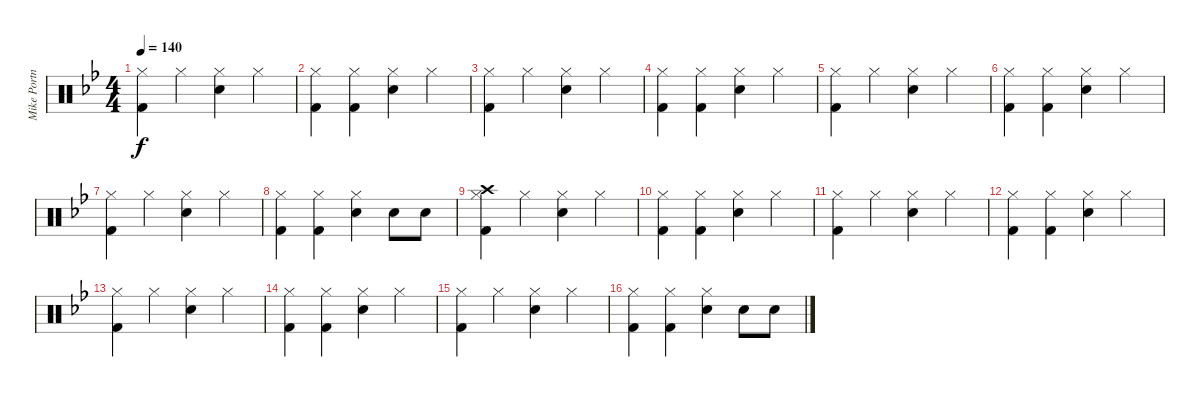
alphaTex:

\track ("Mike Portnoy - Drums" "Mike Portn") {instrument percussion}
\staff {score}
\articulation defaults
\ts (4 4)
\section ("" "")
\tempo 140
\clef neutral
\ks bb
("Hi-Hat (closed)" "Kick (hit) 2").4{dy f} "Hi-Hat (closed)".4 ("Hi-Hat (closed)" "Snare (hit) 2").4 "Hi-Hat (closed)".4 |
("Hi-Hat (closed)" "Kick (hit) 2").4 ("Hi-Hat (closed)" "Kick (hit) 2").4 ("Hi-Hat (closed)" "Snare (hit) 2").4 "Hi-Hat (closed)".4 |
("Hi-Hat (closed)" "Kick (hit) 2").4 "Hi-Hat (closed)".4 ("Hi-Hat (closed)" "Snare (hit) 2").4 "Hi-Hat (closed)".4 |
("Hi-Hat (closed)" "Kick (hit) 2").4 ("Hi-Hat (closed)" "Kick (hit) 2").4 ("Hi-Hat (closed)" "Snare (hit) 2").4 "Hi-Hat (closed)".4 |
("Hi-Hat (closed)" "Kick (hit) 2").4 "Hi-Hat (closed)".4 ("Hi-Hat (closed)" "Snare (hit) 2").4 "Hi-Hat (closed)".4 |
("Hi-Hat (closed)" "Kick (hit) 2").4 ("Hi-Hat (closed)" "Kick (hit) 2").4 ("Hi-Hat (closed)" "Snare (hit) 2").4 "Hi-Hat (closed)".4 |
("Hi-Hat (closed)" "Kick (hit) 2").4 "Hi-Hat (closed)".4 ("Hi-Hat (closed)" "Snare (hit) 2").4 "Hi-Hat (closed)".4 |
("Hi-Hat (closed)" "Kick (hit) 2").4 ("Hi-Hat (closed)" "Kick (hit) 2").4 ("Hi-Hat (closed)" "Snare (hit) 2").4 "Snare (hit) 2".8 "Snare (hit) 2".8 |
\section ("" "")
("Crash high (hit)" "Hi-Hat (closed)" "Kick (hit) 2").4 "Hi-Hat (closed)".4 ("Hi-Hat (closed)" "Snare (hit) 2").4 "Hi-Hat (closed)".4 |
("Hi-Hat (closed)" "Kick (hit) 2").4 ("Hi-Hat (closed)" "Kick (hit) 2").4 ("Hi-Hat (closed)" "Snare (hit) 2").4 "Hi-Hat (closed)".4 |
("Hi-Hat (closed)" "Kick (hit) 2").4 "Hi-Hat (closed)".4 ("Hi-Hat (closed)" "Snare (hit) 2").4 "Hi-Hat (closed)".4 |
("Hi-Hat (closed)" "Kick (hit) 2").4 ("Hi-Hat (closed)" "Kick (hit) 2").4 ("Hi-Hat (closed)" "Snare (hit) 2").4 "Hi-Hat (closed)".4 |
("Hi-Hat (closed)" "Kick (hit) 2").4 "Hi-Hat (closed)".4 ("Hi-Hat (closed)" "Snare (hit) 2").4 "Hi-Hat (closed)".4 |
("Hi-Hat (closed)" "Kick (hit) 2").4 ("Hi-Hat (closed)" "Kick (hit) 2").4 ("Hi-Hat (closed)" "Snare (hit) 2").4 "Hi-Hat (closed)".4 |
("Hi-Hat (closed)" "Kick (hit) 2").4 "Hi-Hat (closed)".4 ("Hi-Hat (closed)" "Snare (hit) 2").4 "Hi-Hat (closed)".4 |
("Hi-Hat (closed)" "Kick (hit) 2").4 ("Hi-Hat (closed)" "Kick (hit) 2").4 ("Hi-Hat (closed)" "Snare (hit) 2").4 "Snare (hit) 2".8 "Snare (hit) 2".8
